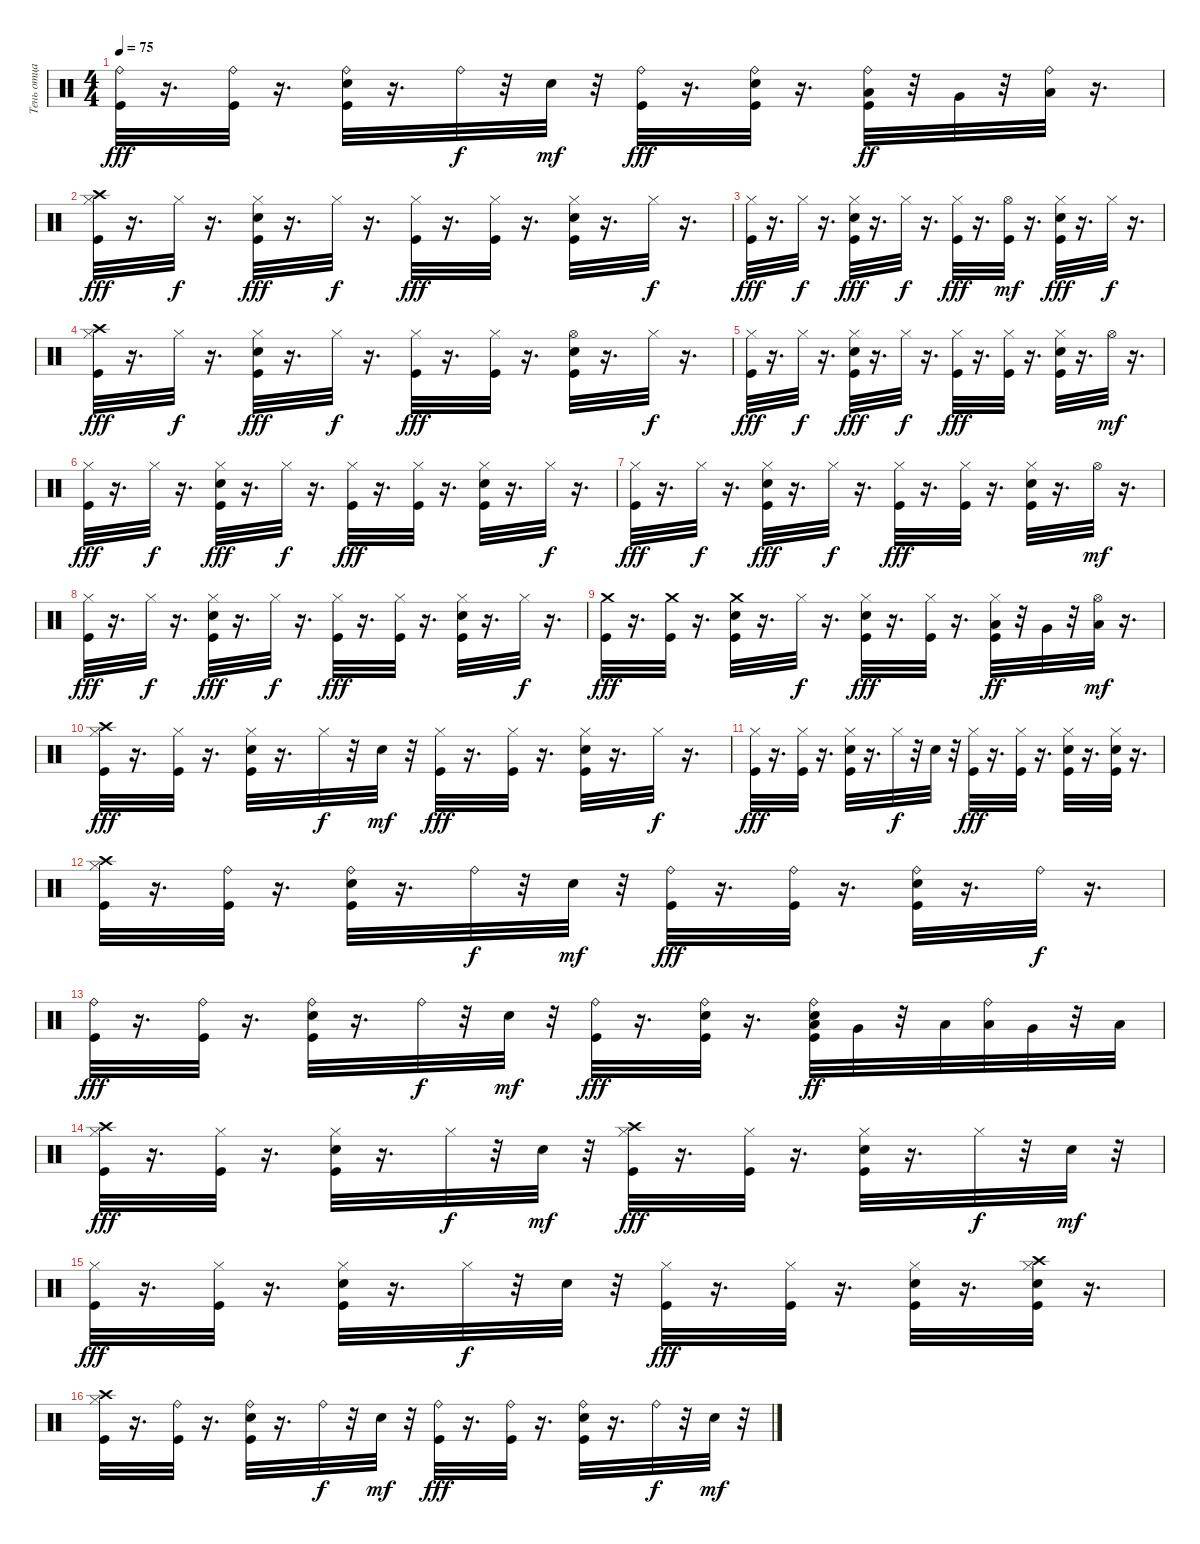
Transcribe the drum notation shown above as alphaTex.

\track ("Тень отца Гамлета" "Тень отца ") {instrument percussion}
\staff {score}
\articulation defaults
\ts (4 4)
\tempo 75
\clef neutral
\ks c
("Kick (hit)" "Ride (bell)").32{dy fff} r.16{d} ("Kick (hit)" "Ride (bell)").32 r.16{d} ("Snare (hit) 2" "Kick (hit)" "Ride (bell)").32 r.16{d} "Ride (bell)".32{dy f} r.32 "Snare (hit) 2".32{dy mf} r.32 ("Kick (hit)" "Ride (bell)").32{dy fff} r.16{d} ("Kick (hit)" "Snare (hit) 2" "Ride (bell)").32 r.16{d} ("Kick (hit)" "Low Tom (hit)" "Ride (bell)").32{dy ff} r.32 "Very Low Tom (hit)".32 r.32 ("Low Floor Tom (hit)" "Ride (bell)").32 r.16{d} |
("Hi-Hat (closed)" "Crash high (hit)" "Kick (hit)").32{dy fff} r.16{d} "Hi-Hat (closed)".32{dy f} r.16{d} ("Hi-Hat (closed)" "Snare (hit) 2" "Kick (hit)").32{dy fff} r.16{d} "Hi-Hat (closed)".32{dy f} r.16{d} ("Hi-Hat (closed)" "Kick (hit)").32{dy fff} r.16{d} ("Hi-Hat (closed)" "Kick (hit)").32 r.16{d} ("Hi-Hat (closed)" "Snare (hit) 2" "Kick (hit)").32 r.16{d} "Hi-Hat (closed)".32{dy f} r.16{d} |
("Kick (hit)" "Hi-Hat (closed)").32{dy fff} r.16{d} "Hi-Hat (closed)".32{dy f} r.16{d} ("Snare (hit) 2" "Kick (hit)" "Hi-Hat (closed)").32{dy fff} r.16{d} "Hi-Hat (closed)".32{dy f} r.16{d} ("Kick (hit)" "Hi-Hat (closed)").32{dy fff} r.16{d} ("Kick (hit)" "Hi-Hat (open)").32{dy mf} r.16{d} ("Snare (hit) 2" "Kick (hit)" "Hi-Hat (closed)").32{dy fff} r.16{d} "Hi-Hat (closed)".32{dy f} r.16{d} |
("Hi-Hat (closed)" "Crash high (hit)" "Kick (hit)").32{dy fff} r.16{d} "Hi-Hat (closed)".32{dy f} r.16{d} ("Hi-Hat (closed)" "Snare (hit) 2" "Kick (hit)").32{dy fff} r.16{d} "Hi-Hat (closed)".32{dy f} r.16{d} ("Hi-Hat (closed)" "Kick (hit)").32{dy fff} r.16{d} ("Hi-Hat (closed)" "Kick (hit)").32 r.16{d} ("Hi-Hat (open)" "Snare (hit) 2" "Kick (hit)").32 r.16{d} "Hi-Hat (closed)".32{dy f} r.16{d} |
("Kick (hit)" "Hi-Hat (closed)").32{dy fff} r.16{d} "Hi-Hat (closed)".32{dy f} r.16{d} ("Snare (hit) 2" "Kick (hit)" "Hi-Hat (closed)").32{dy fff} r.16{d} "Hi-Hat (closed)".32{dy f} r.16{d} ("Kick (hit)" "Hi-Hat (closed)").32{dy fff} r.16{d} ("Kick (hit)" "Hi-Hat (closed)").32 r.16{d} ("Snare (hit) 2" "Kick (hit)" "Hi-Hat (closed)").32 r.16{d} "Hi-Hat (open)".32{dy mf} r.16{d} |
("Hi-Hat (closed)" "Kick (hit)").32{dy fff} r.16{d} "Hi-Hat (closed)".32{dy f} r.16{d} ("Hi-Hat (closed)" "Snare (hit) 2" "Kick (hit)").32{dy fff} r.16{d} "Hi-Hat (closed)".32{dy f} r.16{d} ("Hi-Hat (closed)" "Kick (hit)").32{dy fff} r.16{d} ("Hi-Hat (closed)" "Kick (hit)").32 r.16{d} ("Hi-Hat (closed)" "Snare (hit) 2" "Kick (hit)").32 r.16{d} "Hi-Hat (closed)".32{dy f} r.16{d} |
("Hi-Hat (closed)" "Kick (hit)").32{dy fff} r.16{d} "Hi-Hat (closed)".32{dy f} r.16{d} ("Hi-Hat (closed)" "Snare (hit) 2" "Kick (hit)").32{dy fff} r.16{d} "Hi-Hat (closed)".32{dy f} r.16{d} ("Hi-Hat (closed)" "Kick (hit)").32{dy fff} r.16{d} ("Hi-Hat (closed)" "Kick (hit)").32 r.16{d} ("Hi-Hat (closed)" "Snare (hit) 2" "Kick (hit)").32 r.16{d} "Hi-Hat (open)".32{dy mf} r.16{d} |
("Hi-Hat (closed)" "Kick (hit)").32{dy fff} r.16{d} "Hi-Hat (closed)".32{dy f} r.16{d} ("Hi-Hat (closed)" "Snare (hit) 2" "Kick (hit)").32{dy fff} r.16{d} "Hi-Hat (closed)".32{dy f} r.16{d} ("Hi-Hat (closed)" "Kick (hit)").32{dy fff} r.16{d} ("Hi-Hat (closed)" "Kick (hit)").32 r.16{d} ("Hi-Hat (closed)" "Snare (hit) 2" "Kick (hit)").32 r.16{d} "Hi-Hat (closed)".32{dy f} r.16{d} |
("Crash medium (hit)" "Kick (hit)").32{dy fff} r.16{d} ("Kick (hit)" "Crash medium (hit)").32 r.16{d} ("Snare (hit) 2" "Kick (hit)" "Crash medium (hit)").32 r.16{d} "Hi-Hat (closed)".32{dy f} r.16{d} ("Kick (hit)" "Snare (hit) 2" "Hi-Hat (closed)").32{dy fff} r.16{d} ("Kick (hit)" "Hi-Hat (closed)").32 r.16{d} ("Kick (hit)" "Low Tom (hit)" "Hi-Hat (closed)").32{dy ff} r.32 "Very Low Tom (hit)".32 r.32 ("Low Floor Tom (hit)" "Hi-Hat (open)").32{dy mf} r.16{d} |
("Hi-Hat (closed)" "Crash high (hit)" "Kick (hit)").32{dy fff} r.16{d} ("Kick (hit)" "Hi-Hat (closed)").32 r.16{d} ("Hi-Hat (closed)" "Snare (hit) 2" "Kick (hit)").32 r.16{d} "Hi-Hat (closed)".32{dy f} r.32 "Snare (hit) 2".32{dy mf} r.32 ("Hi-Hat (closed)" "Kick (hit)").32{dy fff} r.16{d} ("Kick (hit)" "Hi-Hat (closed)").32 r.16{d} ("Hi-Hat (closed)" "Snare (hit) 2" "Kick (hit)").32 r.16{d} "Hi-Hat (closed)".32{dy f} r.16{d} |
("Hi-Hat (closed)" "Kick (hit)").32{dy fff} r.16{d} ("Kick (hit)" "Hi-Hat (closed)").32 r.16{d} ("Hi-Hat (closed)" "Snare (hit) 2" "Kick (hit)").32 r.16{d} "Hi-Hat (closed)".32{dy f} r.32 "Snare (hit) 2".32 r.32 ("Hi-Hat (closed)" "Kick (hit)").32{dy fff} r.16{d} ("Hi-Hat (closed)" "Kick (hit)").32 r.16{d} ("Hi-Hat (closed)" "Snare (hit) 2" "Kick (hit)").32 r.16{d} ("Snare (hit) 2" "Kick (hit)" "Hi-Hat (closed)").32 r.16{d} |
("Crash high (hit)" "Kick (hit)" "Hi-Hat (closed)").32 r.16{d} ("Ride (bell)" "Kick (hit)").32 r.16{d} ("Ride (bell)" "Snare (hit) 2" "Kick (hit)").32 r.16{d} "Ride (bell)".32{dy f} r.32 "Snare (hit) 2".32{dy mf} r.32 ("Kick (hit)" "Ride (bell)").32{dy fff} r.16{d} ("Ride (bell)" "Kick (hit)").32 r.16{d} ("Snare (hit) 2" "Kick (hit)" "Ride (bell)").32 r.16{d} "Ride (bell)".32{dy f} r.16{d} |
("Kick (hit)" "Ride (bell)").32{dy fff} r.16{d} ("Kick (hit)" "Ride (bell)").32 r.16{d} ("Snare (hit) 2" "Kick (hit)" "Ride (bell)").32 r.16{d} "Ride (bell)".32{dy f} r.32 "Snare (hit) 2".32{dy mf} r.32 ("Kick (hit)" "Ride (bell)").32{dy fff} r.16{d} ("Kick (hit)" "Snare (hit) 2" "Ride (bell)").32 r.16{d} ("Snare (hit) 2" "Kick (hit)" "Low Tom (hit)" "Ride (bell)").32{dy ff} "Very Low Tom (hit)".32 r.32 "Low Floor Tom (hit)".32 ("Ride (bell)" "Low Tom (hit)").32 "Very Low Tom (hit)".32 r.32 "Low Floor Tom (hit)".32 |
("Hi-Hat (closed)" "Crash high (hit)" "Kick (hit)").32{dy fff} r.16{d} ("Kick (hit)" "Hi-Hat (closed)").32 r.16{d} ("Hi-Hat (closed)" "Snare (hit) 2" "Kick (hit)").32 r.16{d} "Hi-Hat (closed)".32{dy f} r.32 "Snare (hit) 2".32{dy mf} r.32 ("Hi-Hat (closed)" "Kick (hit)" "Crash high (hit)").32{dy fff} r.16{d} ("Kick (hit)" "Hi-Hat (closed)").32 r.16{d} ("Hi-Hat (closed)" "Snare (hit) 2" "Kick (hit)").32 r.16{d} "Hi-Hat (closed)".32{dy f} r.32 "Snare (hit) 2".32{dy mf} r.32 |
("Kick (hit)" "Hi-Hat (closed)").32{dy fff} r.16{d} ("Kick (hit)" "Hi-Hat (closed)").32 r.16{d} ("Snare (hit) 2" "Kick (hit)" "Hi-Hat (closed)").32 r.16{d} "Hi-Hat (closed)".32{dy f} r.32 "Snare (hit) 2".32 r.32 ("Kick (hit)" "Hi-Hat (closed)").32{dy fff} r.16{d} ("Kick (hit)" "Hi-Hat (closed)").32 r.16{d} ("Snare (hit) 2" "Kick (hit)" "Hi-Hat (closed)").32 r.16{d} ("Crash high (hit)" "Snare (hit) 2" "Kick (hit)" "Hi-Hat (closed)").32 r.16{d} |
("Crash high (hit)" "Kick (hit)" "Hi-Hat (closed)").32 r.16{d} ("Ride (bell)" "Kick (hit)").32 r.16{d} ("Ride (bell)" "Snare (hit) 2" "Kick (hit)").32 r.16{d} "Ride (bell)".32{dy f} r.32 "Snare (hit) 2".32{dy mf} r.32 ("Kick (hit)" "Ride (bell)").32{dy fff} r.16{d} ("Ride (bell)" "Kick (hit)").32 r.16{d} ("Snare (hit) 2" "Kick (hit)" "Ride (bell)").32 r.16{d} "Ride (bell)".32{dy f} r.32 "Snare (hit) 2".32{dy mf} r.32
